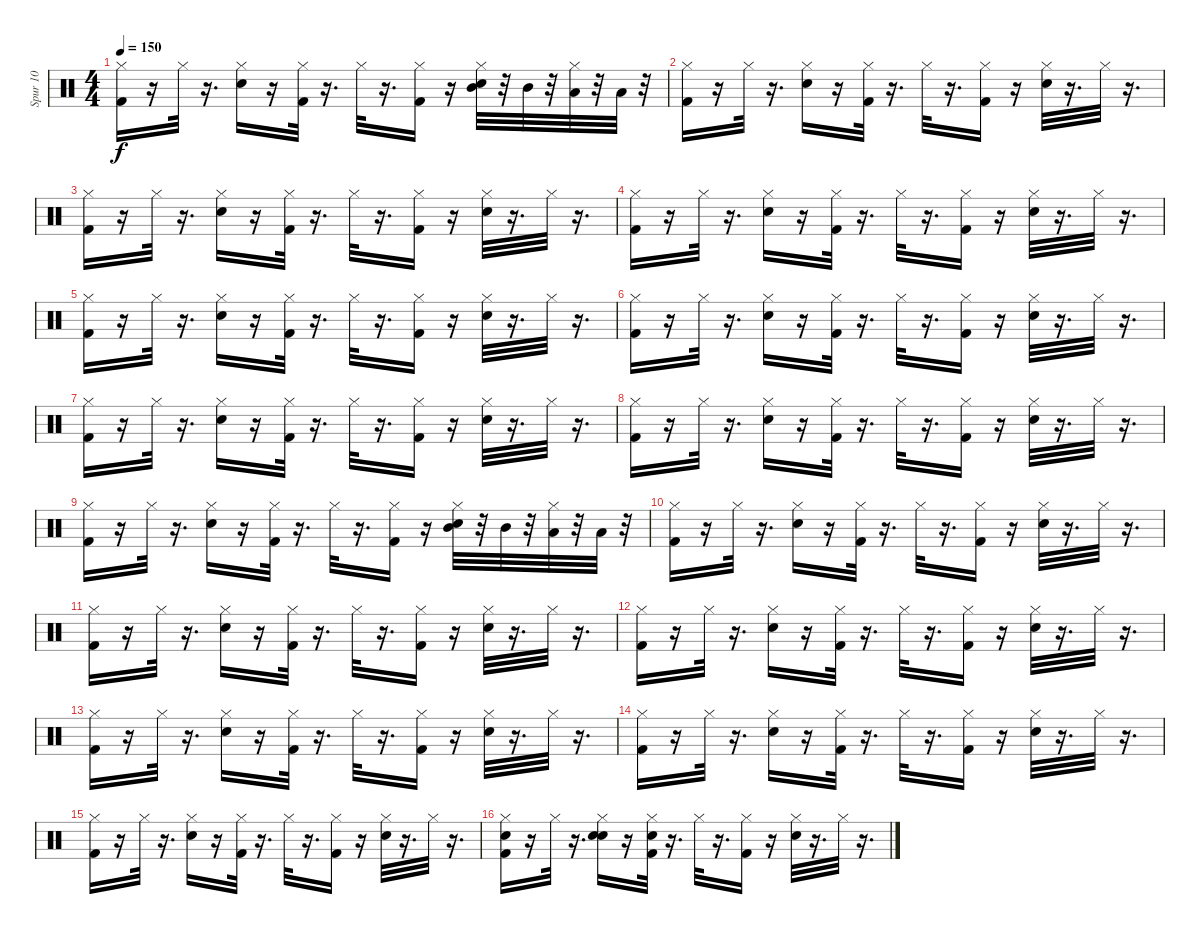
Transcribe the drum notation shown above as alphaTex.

\track ("Spur 10" "Spur 10") {instrument percussion}
\staff {score}
\articulation defaults
\ts (4 4)
\tempo 150
\clef neutral
\ks c
("Kick (hit) 2" "Hi-Hat (closed)").16{dy f} r.16 "Hi-Hat (closed)".32 r.16{d} ("Electric Snare (hit)" "Hi-Hat (closed)").16 r.16 ("Kick (hit) 2" "Hi-Hat (closed)").32 r.16{d} "Hi-Hat (closed)".32 r.16{d} ("Kick (hit) 2" "Hi-Hat (closed)").16 r.16 ("Electric Snare (hit)" "Hi-Hat (closed)" "Mid Tom (hit)").32 r.32 "Mid Tom (hit)".32 r.32 ("Low Tom (hit)" "Hi-Hat (closed)").32 r.32 "Low Tom (hit)".32 r.32 |
("Hi-Hat (closed)" "Kick (hit) 2").16 r.16 "Hi-Hat (closed)".32 r.16{d} ("Electric Snare (hit)" "Hi-Hat (closed)").16 r.16 ("Hi-Hat (closed)" "Kick (hit) 2").32 r.16{d} "Hi-Hat (closed)".32 r.16{d} ("Kick (hit) 2" "Hi-Hat (closed)").16 r.16 ("Electric Snare (hit)" "Hi-Hat (closed)").32 r.16{d} "Hi-Hat (closed)".32 r.16{d} |
("Hi-Hat (closed)" "Kick (hit) 2").16 r.16 "Hi-Hat (closed)".32 r.16{d} ("Electric Snare (hit)" "Hi-Hat (closed)").16 r.16 ("Kick (hit) 2" "Hi-Hat (closed)").32 r.16{d} "Hi-Hat (closed)".32 r.16{d} ("Kick (hit) 2" "Hi-Hat (closed)").16 r.16 ("Electric Snare (hit)" "Hi-Hat (closed)").32 r.16{d} "Hi-Hat (closed)".32 r.16{d} |
("Kick (hit) 2" "Hi-Hat (closed)").16 r.16 "Hi-Hat (closed)".32 r.16{d} ("Electric Snare (hit)" "Hi-Hat (closed)").16 r.16 ("Kick (hit) 2" "Hi-Hat (closed)").32 r.16{d} "Hi-Hat (closed)".32 r.16{d} ("Kick (hit) 2" "Hi-Hat (closed)").16 r.16 ("Electric Snare (hit)" "Hi-Hat (closed)").32 r.16{d} "Hi-Hat (closed)".32 r.16{d} |
("Kick (hit) 2" "Hi-Hat (closed)").16 r.16 "Hi-Hat (closed)".32 r.16{d} ("Electric Snare (hit)" "Hi-Hat (closed)").16 r.16 ("Kick (hit) 2" "Hi-Hat (closed)").32 r.16{d} "Hi-Hat (closed)".32 r.16{d} ("Kick (hit) 2" "Hi-Hat (closed)").16 r.16 ("Electric Snare (hit)" "Hi-Hat (closed)").32 r.16{d} "Hi-Hat (closed)".32 r.16{d} |
("Hi-Hat (closed)" "Kick (hit) 2").16 r.16 "Hi-Hat (closed)".32 r.16{d} ("Electric Snare (hit)" "Hi-Hat (closed)").16 r.16 ("Hi-Hat (closed)" "Kick (hit) 2").32 r.16{d} "Hi-Hat (closed)".32 r.16{d} ("Hi-Hat (closed)" "Kick (hit) 2").16 r.16 ("Electric Snare (hit)" "Hi-Hat (closed)").32 r.16{d} "Hi-Hat (closed)".32 r.16{d} |
("Hi-Hat (closed)" "Kick (hit) 2").16 r.16 "Hi-Hat (closed)".32 r.16{d} ("Electric Snare (hit)" "Hi-Hat (closed)").16 r.16 ("Kick (hit) 2" "Hi-Hat (closed)").32 r.16{d} "Hi-Hat (closed)".32 r.16{d} ("Kick (hit) 2" "Hi-Hat (closed)").16 r.16 ("Electric Snare (hit)" "Hi-Hat (closed)").32 r.16{d} "Hi-Hat (closed)".32 r.16{d} |
("Kick (hit) 2" "Hi-Hat (closed)").16 r.16 "Hi-Hat (closed)".32 r.16{d} ("Electric Snare (hit)" "Hi-Hat (closed)").16 r.16 ("Kick (hit) 2" "Hi-Hat (closed)").32 r.16{d} "Hi-Hat (closed)".32 r.16{d} ("Kick (hit) 2" "Hi-Hat (closed)").16 r.16 ("Electric Snare (hit)" "Hi-Hat (closed)").32 r.16{d} "Hi-Hat (closed)".32 r.16{d} |
("Hi-Hat (closed)" "Kick (hit) 2").16 r.16 "Hi-Hat (closed)".32 r.16{d} ("Electric Snare (hit)" "Hi-Hat (closed)").16 r.16 ("Kick (hit) 2" "Hi-Hat (closed)").32 r.16{d} "Hi-Hat (closed)".32 r.16{d} ("Kick (hit) 2" "Hi-Hat (closed)").16 r.16 ("Electric Snare (hit)" "Hi-Hat (closed)" "Mid Tom (hit)").32 r.32 "Mid Tom (hit)".32 r.32 ("Low Tom (hit)" "Hi-Hat (closed)").32 r.32 "Low Tom (hit)".32 r.32 |
("Hi-Hat (closed)" "Kick (hit) 2").16 r.16 "Hi-Hat (closed)".32 r.16{d} ("Hi-Hat (closed)" "Electric Snare (hit)").16 r.16 ("Kick (hit) 2" "Hi-Hat (closed)").32 r.16{d} "Hi-Hat (closed)".32 r.16{d} ("Hi-Hat (closed)" "Kick (hit) 2").16 r.16 ("Hi-Hat (closed)" "Electric Snare (hit)").32 r.16{d} "Hi-Hat (closed)".32 r.16{d} |
("Kick (hit) 2" "Hi-Hat (closed)").16 r.16 "Hi-Hat (closed)".32 r.16{d} ("Electric Snare (hit)" "Hi-Hat (closed)").16 r.16 ("Kick (hit) 2" "Hi-Hat (closed)").32 r.16{d} "Hi-Hat (closed)".32 r.16{d} ("Kick (hit) 2" "Hi-Hat (closed)").16 r.16 ("Electric Snare (hit)" "Hi-Hat (closed)").32 r.16{d} "Hi-Hat (closed)".32 r.16{d} |
("Kick (hit) 2" "Hi-Hat (closed)").16 r.16 "Hi-Hat (closed)".32 r.16{d} ("Electric Snare (hit)" "Hi-Hat (closed)").16 r.16 ("Kick (hit) 2" "Hi-Hat (closed)").32 r.16{d} "Hi-Hat (closed)".32 r.16{d} ("Kick (hit) 2" "Hi-Hat (closed)").16 r.16 ("Electric Snare (hit)" "Hi-Hat (closed)").32 r.16{d} "Hi-Hat (closed)".32 r.16{d} |
("Hi-Hat (closed)" "Kick (hit) 2").16 r.16 "Hi-Hat (closed)".32 r.16{d} ("Electric Snare (hit)" "Hi-Hat (closed)").16 r.16 ("Kick (hit) 2" "Hi-Hat (closed)").32 r.16{d} "Hi-Hat (closed)".32 r.16{d} ("Kick (hit) 2" "Hi-Hat (closed)").16 r.16 ("Electric Snare (hit)" "Hi-Hat (closed)").32 r.16{d} "Hi-Hat (closed)".32 r.16{d} |
("Hi-Hat (closed)" "Kick (hit) 2").16 r.16 "Hi-Hat (closed)".32 r.16{d} ("Electric Snare (hit)" "Hi-Hat (closed)").16 r.16 ("Hi-Hat (closed)" "Kick (hit) 2").32 r.16{d} "Hi-Hat (closed)".32 r.16{d} ("Hi-Hat (closed)" "Kick (hit) 2").16 r.16 ("Electric Snare (hit)" "Hi-Hat (closed)").32 r.16{d} "Hi-Hat (closed)".32 r.16{d} |
("Hi-Hat (closed)" "Kick (hit) 2").16 r.16 "Hi-Hat (closed)".32 r.16{d} ("Electric Snare (hit)" "Hi-Hat (closed)").16 r.16 ("Kick (hit) 2" "Hi-Hat (closed)").32 r.16{d} "Hi-Hat (closed)".32 r.16{d} ("Kick (hit) 2" "Hi-Hat (closed)").16 r.16 ("Electric Snare (hit)" "Hi-Hat (closed)").32 r.16{d} "Hi-Hat (closed)".32 r.16{d} |
("Kick (hit) 2" "Hi-Hat (closed)" "Hand Clap (hit)").16 r.16 "Hi-Hat (closed)".32 r.16{d} ("Electric Snare (hit)" "Hand Clap (hit)" "Hi-Hat (closed)").16 r.16 ("Kick (hit) 2" "Hi-Hat (closed)" "Hand Clap (hit)").32 r.16{d} "Hi-Hat (closed)".32 r.16{d} ("Kick (hit) 2" "Hi-Hat (closed)").16 r.16 ("Electric Snare (hit)" "Hi-Hat (closed)").32 r.16{d} "Hi-Hat (closed)".32 r.16{d}
